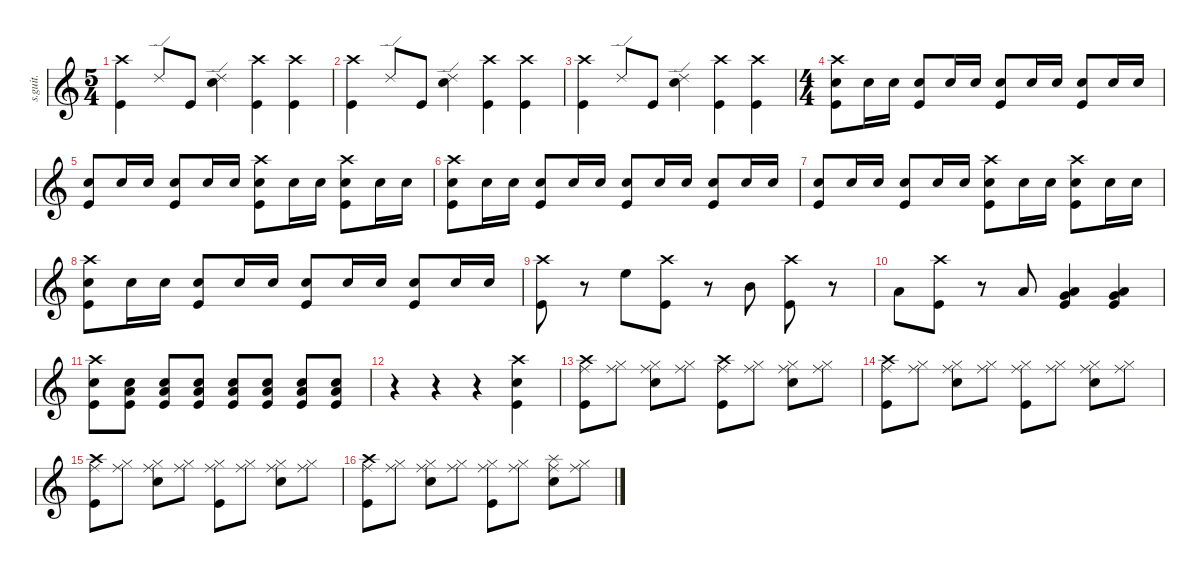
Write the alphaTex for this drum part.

\defaultSystemsLayout 4
\hideDynamics
\bracketExtendMode nobrackets
\track ("A Nameless Ghoul - Drums" "s.guit.") {instrument percussion}
\staff {score}
\articulation defaults
\ts (5 4)
\beaming (8 2 2 2 2)
\tempo (130 hide)
\clef g2
\ks c
("Crash high (hit)" "Kick (hit)").4{dy f} "Ride (edge) 2".8 "Kick (hit)".8 ("Ride (edge) 2" "Electric Snare (hit)").4 ("Crash high (hit)" "Kick (hit)").4 ("Crash high (hit)" "Kick (hit)").4 |
("Crash high (hit)" "Kick (hit)").4 "Ride (edge) 2".8 "Kick (hit)".8 ("Ride (edge) 2" "Electric Snare (hit)").4 ("Crash high (hit)" "Kick (hit)").4 ("Crash high (hit)" "Kick (hit)").4 |
("Crash high (hit)" "Kick (hit)").4 "Ride (edge) 2".8 "Kick (hit)".8 ("Ride (edge) 2" "Electric Snare (hit)").4 ("Crash high (hit)" "Kick (hit)").4 ("Crash high (hit)" "Kick (hit)").4 |
\ts (4 4)
\beaming (8 2 2 2 2)
("Crash high (hit)" "Electric Snare (hit)" "Kick (hit)").8 "Electric Snare (hit)".16 "Electric Snare (hit)".16 ("Electric Snare (hit)" "Kick (hit)").8 "Electric Snare (hit)".16 "Electric Snare (hit)".16 ("Electric Snare (hit)" "Kick (hit)").8 "Electric Snare (hit)".16 "Electric Snare (hit)".16 ("Electric Snare (hit)" "Kick (hit)").8 "Electric Snare (hit)".16 "Electric Snare (hit)".16 |
("Electric Snare (hit)" "Kick (hit)").8 "Electric Snare (hit)".16 "Electric Snare (hit)".16 ("Electric Snare (hit)" "Kick (hit)").8 "Electric Snare (hit)".16 "Electric Snare (hit)".16 ("Crash high (hit)" "Electric Snare (hit)" "Kick (hit)").8 "Electric Snare (hit)".16 "Electric Snare (hit)".16 ("Crash high (hit)" "Electric Snare (hit)" "Kick (hit)").8 "Electric Snare (hit)".16 "Electric Snare (hit)".16 |
("Crash high (hit)" "Electric Snare (hit)" "Kick (hit)").8 "Electric Snare (hit)".16 "Electric Snare (hit)".16 ("Electric Snare (hit)" "Kick (hit)").8 "Electric Snare (hit)".16 "Electric Snare (hit)".16 ("Electric Snare (hit)" "Kick (hit)").8 "Electric Snare (hit)".16 "Electric Snare (hit)".16 ("Electric Snare (hit)" "Kick (hit)").8 "Electric Snare (hit)".16 "Electric Snare (hit)".16 |
("Electric Snare (hit)" "Kick (hit)").8 "Electric Snare (hit)".16 "Electric Snare (hit)".16 ("Electric Snare (hit)" "Kick (hit)").8 "Electric Snare (hit)".16 "Electric Snare (hit)".16 ("Crash high (hit)" "Electric Snare (hit)" "Kick (hit)").8 "Electric Snare (hit)".16 "Electric Snare (hit)".16 ("Crash high (hit)" "Electric Snare (hit)" "Kick (hit)").8 "Electric Snare (hit)".16 "Electric Snare (hit)".16 |
("Crash high (hit)" "Electric Snare (hit)" "Kick (hit)").8 "Electric Snare (hit)".16 "Electric Snare (hit)".16 ("Electric Snare (hit)" "Kick (hit)").8 "Electric Snare (hit)".16 "Electric Snare (hit)".16 ("Electric Snare (hit)" "Kick (hit)").8 "Electric Snare (hit)".16 "Electric Snare (hit)".16 ("Electric Snare (hit)" "Kick (hit)").8 "Electric Snare (hit)".16 "Electric Snare (hit)".16 |
("Crash high (hit)" "Kick (hit)").8 r.8 "High Floor Tom (hit)".8 ("Crash high (hit)" "Kick (hit)").8 r.8 "Mid Tom (hit)".8 ("Crash high (hit)" "Kick (hit)").8 r.8 |
"Low Tom (hit)".8 ("Crash high (hit)" "Kick (hit)").8 r.8 "Low Tom (hit)".8 ("Low Tom (hit)" "Very Low Tom (hit)" "Kick (hit)").4 ("Low Tom (hit)" "Very Low Tom (hit)" "Kick (hit)").4 |
("Crash high (hit)" "Electric Snare (hit)" "Kick (hit)").8 ("Low Floor Tom (hit)" "Electric Snare (hit)" "Kick (hit)").8 ("Low Floor Tom (hit)" "Electric Snare (hit)" "Kick (hit)").8 ("Low Floor Tom (hit)" "Electric Snare (hit)" "Kick (hit)").8 ("Low Floor Tom (hit)" "Electric Snare (hit)" "Kick (hit)").8 ("Low Floor Tom (hit)" "Electric Snare (hit)" "Kick (hit)").8 ("Low Floor Tom (hit)" "Electric Snare (hit)" "Kick (hit)").8 ("Low Floor Tom (hit)" "Electric Snare (hit)" "Kick (hit)").8 |
r.4 r.4 r.4 ("Crash high (hit)" "Electric Snare (hit)" "Kick (hit)").4 |
("Crash high (hit)" "Kick (hit)" "Ride (middle)").8 ("Hi-Hat (closed)" "Ride (middle)").8 ("Hi-Hat (closed)" "Electric Snare (hit)" "Ride (middle)").8 ("Hi-Hat (closed)" "Ride (middle)").8 ("Crash high (hit)" "Kick (hit)" "Ride (middle)").8 ("Hi-Hat (closed)" "Ride (middle)").8 ("Hi-Hat (closed)" "Electric Snare (hit)" "Ride (middle)").8 ("Hi-Hat (closed)" "Ride (middle)").8 |
("Crash high (hit)" "Kick (hit)" "Ride (middle)").8 ("Hi-Hat (closed)" "Ride (middle)").8 ("Hi-Hat (closed)" "Electric Snare (hit)" "Ride (middle)").8 ("Hi-Hat (closed)" "Ride (middle)").8 ("Hi-Hat (closed)" "Kick (hit)" "Ride (middle)").8 ("Hi-Hat (closed)" "Ride (middle)").8 ("Hi-Hat (closed)" "Electric Snare (hit)" "Ride (middle)").8 ("Hi-Hat (closed)" "Ride (middle)").8 |
("Crash high (hit)" "Kick (hit)" "Ride (middle)").8 ("Hi-Hat (closed)" "Ride (middle)").8 ("Hi-Hat (closed)" "Electric Snare (hit)" "Ride (middle)").8 ("Hi-Hat (closed)" "Ride (middle)").8 ("Hi-Hat (closed)" "Kick (hit)" "Ride (middle)").8 ("Hi-Hat (closed)" "Ride (middle)").8 ("Hi-Hat (closed)" "Electric Snare (hit)" "Ride (middle)").8 ("Hi-Hat (closed)" "Ride (middle)").8 |
("Crash high (hit)" "Kick (hit)" "Ride (middle)").8 ("Hi-Hat (closed)" "Ride (middle)").8 ("Hi-Hat (closed)" "Electric Snare (hit)" "Ride (middle)").8 ("Hi-Hat (closed)" "Ride (middle)").8 ("Hi-Hat (closed)" "Kick (hit)" "Ride (middle)").8 ("Hi-Hat (closed)" "Ride (middle)").8 ("Splash (hit)" "Electric Snare (hit)" "Ride (middle)").8 ("Hi-Hat (closed)" "Ride (middle)").8
